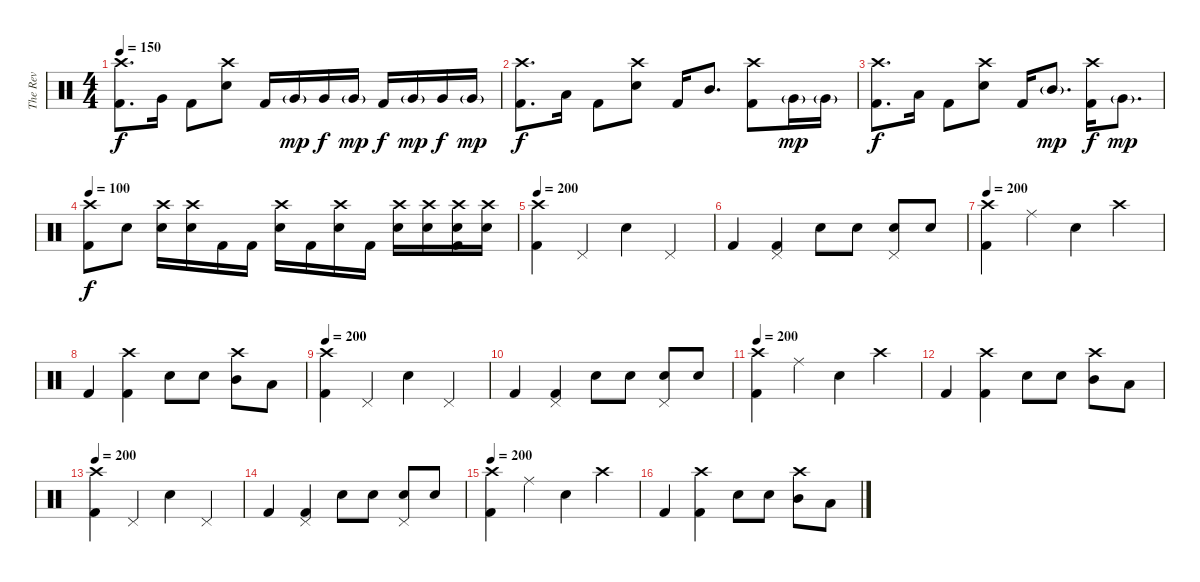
\track ("The Rev" "The Rev") {instrument percussion}
\staff {score}
\articulation defaults
\ts (4 4)
\tempo 150
\clef neutral
\ks c
("Crash high (hit)" "Kick (hit) 2").8{d dy f} "Very Low Tom (hit)".16 "Kick (hit) 2".8 ("Crash high (hit)" "Electric Snare (hit)").8 "Kick (hit) 2".16 "Very Low Tom (hit)"{g}.16{dy mp} "Very Low Tom (hit)".16{dy f} "Very Low Tom (hit)"{g}.16{dy mp} "Kick (hit) 2".16{dy f} "Very Low Tom (hit)"{g}.16{dy mp} "Very Low Tom (hit)".16{dy f} "Very Low Tom (hit)"{g}.16{dy mp} |
("Crash high (hit)" "Kick (hit) 2").8{d dy f} "Low Tom (hit)".16 "Kick (hit) 2".8 ("Crash high (hit)" "Electric Snare (hit)").8 "Kick (hit) 2".16 "Mid Tom (hit)".8{d} ("Crash high (hit)" "Kick (hit) 2").8 "Very Low Tom (hit)"{g}.16{dy mp} "Very Low Tom (hit)"{g}.16 |
("Crash high (hit)" "Kick (hit) 2").8{d dy f} "Low Tom (hit)".16 "Kick (hit) 2".8 ("Crash high (hit)" "Electric Snare (hit)").8 "Kick (hit) 2".16 "Mid Tom (hit)"{g}.8{d dy mp} ("Crash high (hit)" "Kick (hit) 2").16{dy f} "Very Low Tom (hit)"{g}.8{d dy mp} |
\tempo 100
("Crash high (hit)" "Kick (hit) 2").8{dy f} "Electric Snare (hit)".8 ("Crash high (hit)" "Electric Snare (hit)").16 ("Crash high (hit)" "Electric Snare (hit)").16 "Kick (hit) 2".16 "Kick (hit) 2".16 ("Crash high (hit)" "Electric Snare (hit)").16 "Kick (hit) 2".16 ("Crash high (hit)" "Electric Snare (hit)").16 "Kick (hit) 2".16 ("Crash high (hit)" "Electric Snare (hit)").16 ("Crash high (hit)" "Electric Snare (hit)").16 ("Crash high (hit)" "Electric Snare (hit)" "Kick (hit) 2").16 ("Crash high (hit)" "Electric Snare (hit)").16 |
\tempo 200
("Crash high (hit)" "Kick (hit) 2").4 "Pedal Hi-Hat (hit)".4 "Electric Snare (hit)".4 "Pedal Hi-Hat (hit)".4 |
"Kick (hit) 2".4 ("Pedal Hi-Hat (hit)" "Kick (hit) 2").4 "Electric Snare (hit)".8 "Electric Snare (hit)".8 ("Pedal Hi-Hat (hit)" "Electric Snare (hit)").8 "Electric Snare (hit)".8 |
\tempo 200
("Crash high (hit)" "Kick (hit) 2").4 "Ride (middle)".4 "Electric Snare (hit)".4 "Crash high (hit)".4 |
"Kick (hit) 2".4 ("Crash high (hit)" "Kick (hit) 2").4 "Electric Snare (hit)".8 "Electric Snare (hit)".8 ("Crash high (hit)" "Mid Tom (hit)").8 "Low Tom (hit)".8 |
\tempo 200
("Crash high (hit)" "Kick (hit) 2").4 "Pedal Hi-Hat (hit)".4 "Electric Snare (hit)".4 "Pedal Hi-Hat (hit)".4 |
"Kick (hit) 2".4 ("Pedal Hi-Hat (hit)" "Kick (hit) 2").4 "Electric Snare (hit)".8 "Electric Snare (hit)".8 ("Pedal Hi-Hat (hit)" "Electric Snare (hit)").8 "Electric Snare (hit)".8 |
\tempo 200
("Crash high (hit)" "Kick (hit) 2").4 "Ride (middle)".4 "Electric Snare (hit)".4 "Crash high (hit)".4 |
"Kick (hit) 2".4 ("Crash high (hit)" "Kick (hit) 2").4 "Electric Snare (hit)".8 "Electric Snare (hit)".8 ("Crash high (hit)" "Mid Tom (hit)").8 "Low Tom (hit)".8 |
\tempo 200
("Crash high (hit)" "Kick (hit) 2").4 "Pedal Hi-Hat (hit)".4 "Electric Snare (hit)".4 "Pedal Hi-Hat (hit)".4 |
"Kick (hit) 2".4 ("Pedal Hi-Hat (hit)" "Kick (hit) 2").4 "Electric Snare (hit)".8 "Electric Snare (hit)".8 ("Pedal Hi-Hat (hit)" "Electric Snare (hit)").8 "Electric Snare (hit)".8 |
\tempo 200
("Crash high (hit)" "Kick (hit) 2").4 "Ride (middle)".4 "Electric Snare (hit)".4 "Crash high (hit)".4 |
"Kick (hit) 2".4 ("Crash high (hit)" "Kick (hit) 2").4 "Electric Snare (hit)".8 "Electric Snare (hit)".8 ("Crash high (hit)" "Mid Tom (hit)").8 "Low Tom (hit)".8
